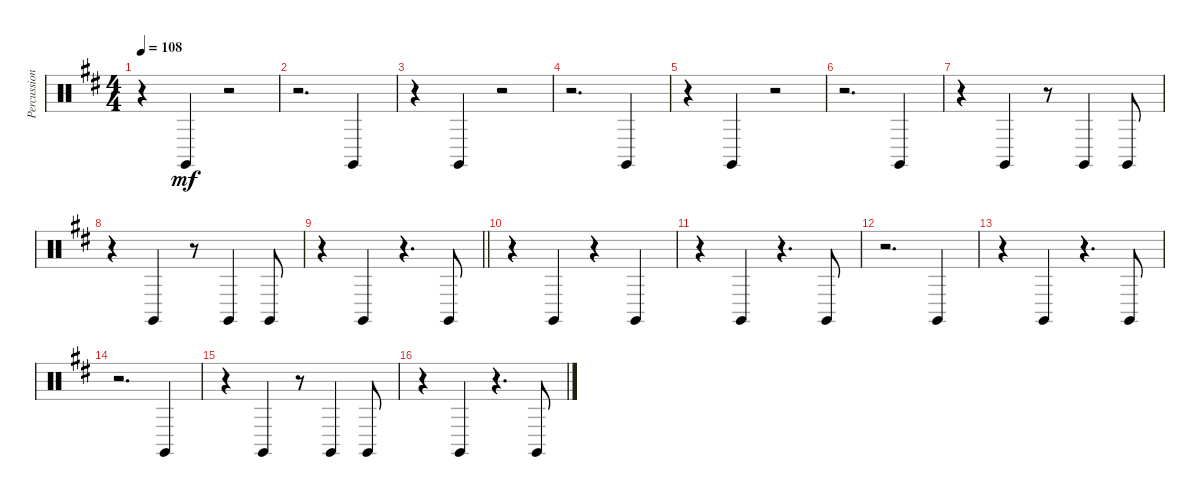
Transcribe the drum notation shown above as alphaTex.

\track ("Percussion" "Percussion") {instrument percussion}
\staff {score}
\articulation defaults
\ts (4 4)
\tempo 108
\clef neutral
\ks bminor
r.4{dy mf} "Claves (hit)".4 r.2 |
r.2{d} "Claves (hit)".4 |
r.4 "Claves (hit)".4 r.2 |
r.2{d} "Claves (hit)".4 |
r.4 "Claves (hit)".4 r.2 |
r.2{d} "Claves (hit)".4 |
r.4 "Claves (hit)".4 r.8 "Claves (hit)".4 "Claves (hit)".8 |
r.4 "Claves (hit)".4 r.8 "Claves (hit)".4 "Claves (hit)".8 |
\barLineRight lightlight
r.4 "Claves (hit)".4 r.4{d} "Claves (hit)".8 |
r.4 "Claves (hit)".4 r.4 "Claves (hit)".4 |
r.4 "Claves (hit)".4 r.4{d} "Claves (hit)".8 |
r.2{d} "Claves (hit)".4 |
r.4 "Claves (hit)".4 r.4{d} "Claves (hit)".8 |
r.2{d} "Claves (hit)".4 |
r.4 "Claves (hit)".4 r.8 "Claves (hit)".4 "Claves (hit)".8 |
r.4 "Claves (hit)".4 r.4{d} "Claves (hit)".8
